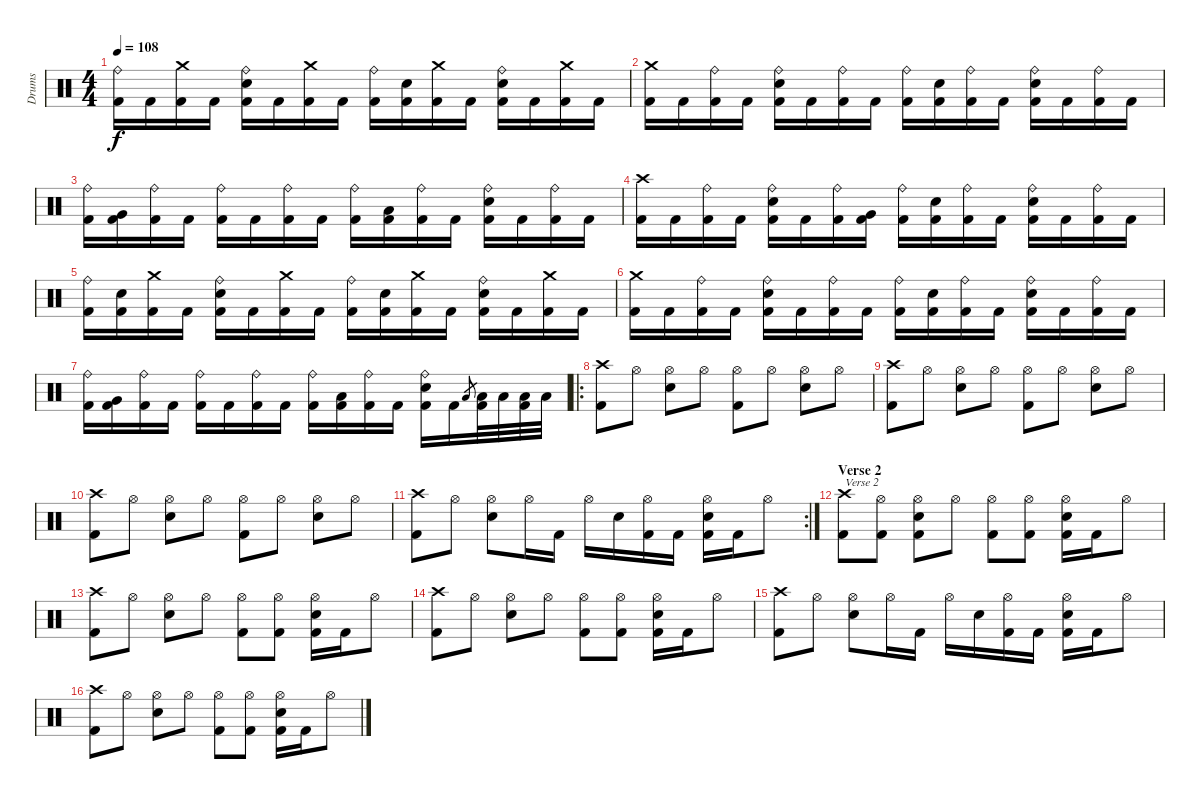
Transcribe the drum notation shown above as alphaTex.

\track ("Drums" "Drums") {instrument percussion}
\staff {score}
\articulation defaults
\ts (4 4)
\tempo 108
\clef neutral
\ks c
("Ride (bell)" "Kick (hit) 2").16{dy f} "Kick (hit) 2".16 ("Crash medium (hit)" "Kick (hit) 2").16 "Kick (hit) 2".16 ("Ride (bell)" "Electric Snare (hit)" "Kick (hit) 2").16 "Kick (hit) 2".16 ("Crash medium (hit)" "Kick (hit) 2").16 "Kick (hit) 2".16 ("Ride (bell)" "Kick (hit) 2").16 ("Electric Snare (hit)" "Kick (hit) 2").16 ("Crash medium (hit)" "Kick (hit) 2").16 "Kick (hit) 2".16 ("Ride (bell)" "Electric Snare (hit)" "Kick (hit) 2").16 "Kick (hit) 2".16 ("Crash medium (hit)" "Kick (hit) 2").16 "Kick (hit) 2".16 |
("Crash medium (hit)" "Kick (hit) 2").16 "Kick (hit) 2".16 ("Ride (bell)" "Kick (hit) 2").16 "Kick (hit) 2".16 ("Ride (bell)" "Electric Snare (hit)" "Kick (hit) 2").16 "Kick (hit) 2".16 ("Ride (bell)" "Kick (hit) 2").16 "Kick (hit) 2".16 ("Ride (bell)" "Kick (hit) 2").16 ("Electric Snare (hit)" "Kick (hit) 2").16 ("Ride (bell)" "Kick (hit) 2").16 "Kick (hit) 2".16 ("Ride (bell)" "Electric Snare (hit)" "Kick (hit) 2").16 "Kick (hit) 2".16 ("Ride (bell)" "Kick (hit) 2").16 "Kick (hit) 2".16 |
("Ride (bell)" "Kick (hit) 2").16 ("Very Low Tom (hit)" "Kick (hit) 2").16 ("Ride (bell)" "Kick (hit) 2").16 "Kick (hit) 2".16 ("Ride (bell)" "Kick (hit) 2").16 "Kick (hit) 2".16 ("Ride (bell)" "Kick (hit) 2").16 "Kick (hit) 2".16 ("Ride (bell)" "Kick (hit) 2").16 ("Low Tom (hit)" "Kick (hit) 2").16 ("Ride (bell)" "Kick (hit) 2").16 "Kick (hit) 2".16 ("Ride (bell)" "Electric Snare (hit)" "Kick (hit) 2").16 "Kick (hit) 2".16 ("Ride (bell)" "Kick (hit) 2").16 "Kick (hit) 2".16 |
("Crash high (hit)" "Kick (hit) 2").16 "Kick (hit) 2".16 ("Ride (bell)" "Kick (hit) 2").16 "Kick (hit) 2".16 ("Ride (bell)" "Electric Snare (hit)" "Kick (hit) 2").16 "Kick (hit) 2".16 ("Ride (bell)" "Kick (hit) 2").16 ("Very Low Tom (hit)" "Kick (hit) 2").16 ("Ride (bell)" "Kick (hit) 2").16 ("Electric Snare (hit)" "Kick (hit) 2").16 ("Ride (bell)" "Kick (hit) 2").16 "Kick (hit) 2".16 ("Ride (bell)" "Electric Snare (hit)" "Kick (hit) 2").16 "Kick (hit) 2".16 ("Ride (bell)" "Kick (hit) 2").16 "Kick (hit) 2".16 |
("Ride (bell)" "Kick (hit) 2").16 ("Electric Snare (hit)" "Kick (hit) 2").16 ("Crash medium (hit)" "Kick (hit) 2").16 "Kick (hit) 2".16 ("Ride (bell)" "Electric Snare (hit)" "Kick (hit) 2").16 "Kick (hit) 2".16 ("Crash medium (hit)" "Kick (hit) 2").16 "Kick (hit) 2".16 ("Ride (bell)" "Kick (hit) 2").16 ("Electric Snare (hit)" "Kick (hit) 2").16 ("Crash medium (hit)" "Kick (hit) 2").16 "Kick (hit) 2".16 ("Ride (bell)" "Electric Snare (hit)" "Kick (hit) 2").16 "Kick (hit) 2".16 ("Crash medium (hit)" "Kick (hit) 2").16 "Kick (hit) 2".16 |
("Crash medium (hit)" "Kick (hit) 2").16 "Kick (hit) 2".16 ("Ride (bell)" "Kick (hit) 2").16 "Kick (hit) 2".16 ("Ride (bell)" "Electric Snare (hit)" "Kick (hit) 2").16 "Kick (hit) 2".16 ("Ride (bell)" "Kick (hit) 2").16 "Kick (hit) 2".16 ("Ride (bell)" "Kick (hit) 2").16 ("Electric Snare (hit)" "Kick (hit) 2").16 ("Ride (bell)" "Kick (hit) 2").16 "Kick (hit) 2".16 ("Ride (bell)" "Electric Snare (hit)" "Kick (hit) 2").16 "Kick (hit) 2".16 ("Ride (bell)" "Kick (hit) 2").16 "Kick (hit) 2".16 |
("Ride (bell)" "Kick (hit) 2").16 ("Very Low Tom (hit)" "Kick (hit) 2").16 ("Ride (bell)" "Kick (hit) 2").16 "Kick (hit) 2".16 ("Ride (bell)" "Kick (hit) 2").16 "Kick (hit) 2".16 ("Ride (bell)" "Kick (hit) 2").16 "Kick (hit) 2".16 ("Ride (bell)" "Kick (hit) 2").16 ("Low Tom (hit)" "Kick (hit) 2").16 ("Ride (bell)" "Kick (hit) 2").16 "Kick (hit) 2".16 ("Ride (bell)" "Electric Snare (hit)" "Kick (hit) 2").16 "Kick (hit) 2".16 "Low Tom (hit)".8{gr} ("Low Tom (hit)" "Kick (hit) 2").32 "Low Tom (hit)".32 ("Low Tom (hit)" "Kick (hit) 2").32 "Low Tom (hit)".32 |
\ro
("Crash high (hit)" "Kick (hit) 2").8 "Hi-Hat (open)".8 ("Hi-Hat (open)" "Electric Snare (hit)").8 "Hi-Hat (open)".8 ("Hi-Hat (open)" "Kick (hit) 2").8 "Hi-Hat (open)".8 ("Hi-Hat (open)" "Electric Snare (hit)").8 "Hi-Hat (open)".8 |
("Crash high (hit)" "Kick (hit) 2").8 "Hi-Hat (open)".8 ("Hi-Hat (open)" "Electric Snare (hit)").8 "Hi-Hat (open)".8 ("Hi-Hat (open)" "Kick (hit) 2").8 "Hi-Hat (open)".8 ("Hi-Hat (open)" "Electric Snare (hit)").8 "Hi-Hat (open)".8 |
("Crash high (hit)" "Kick (hit) 2").8 "Hi-Hat (open)".8 ("Hi-Hat (open)" "Electric Snare (hit)").8 "Hi-Hat (open)".8 ("Hi-Hat (open)" "Kick (hit) 2").8 "Hi-Hat (open)".8 ("Hi-Hat (open)" "Electric Snare (hit)").8 "Hi-Hat (open)".8 |
\rc 2
("Crash high (hit)" "Kick (hit) 2").8 "Hi-Hat (open)".8 ("Hi-Hat (open)" "Electric Snare (hit)").8 "Hi-Hat (open)".16 "Kick (hit) 2".16 "Hi-Hat (open)".16 "Electric Snare (hit)".16 ("Hi-Hat (open)" "Kick (hit) 2").16 "Kick (hit) 2".16 ("Hi-Hat (open)" "Electric Snare (hit)" "Kick (hit) 2").16 "Kick (hit) 2".16 "Hi-Hat (open)".8 |
\section ("" "Verse 2")
("Crash high (hit)" "Kick (hit) 2").8{txt "Verse 2"} ("Hi-Hat (open)" "Kick (hit) 2").8 ("Hi-Hat (open)" "Electric Snare (hit)" "Kick (hit) 2").8 "Hi-Hat (open)".8 ("Hi-Hat (open)" "Kick (hit) 2").8 ("Hi-Hat (open)" "Kick (hit) 2").8 ("Hi-Hat (open)" "Electric Snare (hit)" "Kick (hit) 2").16 "Kick (hit) 2".16 "Hi-Hat (open)".8 |
("Crash high (hit)" "Kick (hit) 2").8 "Hi-Hat (open)".8 ("Hi-Hat (open)" "Electric Snare (hit)").8 "Hi-Hat (open)".8 ("Hi-Hat (open)" "Kick (hit) 2").8 ("Hi-Hat (open)" "Kick (hit) 2").8 ("Hi-Hat (open)" "Electric Snare (hit)" "Kick (hit) 2").16 "Kick (hit) 2".16 "Hi-Hat (open)".8 |
("Crash high (hit)" "Kick (hit) 2").8 "Hi-Hat (open)".8 ("Hi-Hat (open)" "Electric Snare (hit)").8 "Hi-Hat (open)".8 ("Hi-Hat (open)" "Kick (hit) 2").8 ("Hi-Hat (open)" "Kick (hit) 2").8 ("Hi-Hat (open)" "Electric Snare (hit)" "Kick (hit) 2").16 "Kick (hit) 2".16 "Hi-Hat (open)".8 |
("Crash high (hit)" "Kick (hit) 2").8 "Hi-Hat (open)".8 ("Hi-Hat (open)" "Electric Snare (hit)").8 "Hi-Hat (open)".16 "Kick (hit) 2".16 "Hi-Hat (open)".16 "Electric Snare (hit)".16 ("Hi-Hat (open)" "Kick (hit) 2").16 "Kick (hit) 2".16 ("Hi-Hat (open)" "Electric Snare (hit)" "Kick (hit) 2").16 "Kick (hit) 2".16 "Hi-Hat (open)".8 |
("Crash high (hit)" "Kick (hit) 2").8 "Hi-Hat (open)".8 ("Hi-Hat (open)" "Electric Snare (hit)").8 "Hi-Hat (open)".8 ("Hi-Hat (open)" "Kick (hit) 2").8 ("Hi-Hat (open)" "Kick (hit) 2").8 ("Hi-Hat (open)" "Electric Snare (hit)" "Kick (hit) 2").16 "Kick (hit) 2".16 "Hi-Hat (open)".8
